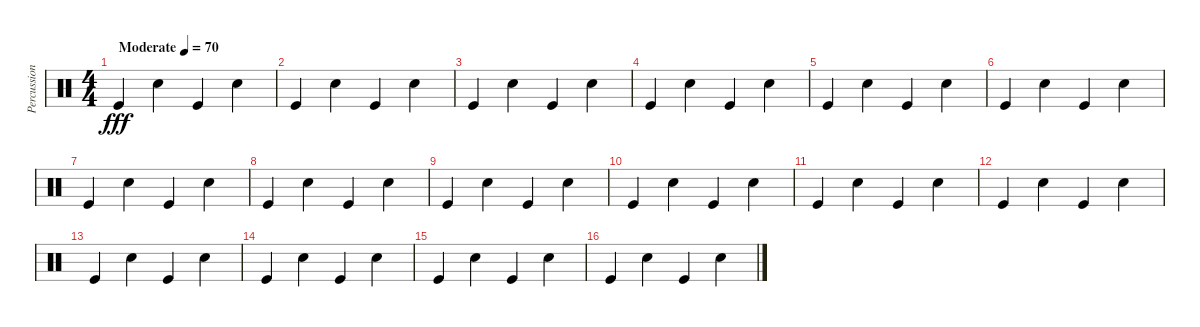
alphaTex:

\track ("Percussions" "Percussion") {instrument percussion}
\staff {score}
\articulation defaults
\ts (4 4)
\tempo (70 "Moderate")
\clef neutral
\ks c "Kick (hit)".4{dy fff} "Electric Snare (hit)".4 "Kick (hit)".4 "Electric Snare (hit)".4
|
"Kick (hit)".4 "Electric Snare (hit)".4 "Kick (hit)".4 "Electric Snare (hit)".4 |
"Kick (hit)".4 "Electric Snare (hit)".4 "Kick (hit)".4 "Electric Snare (hit)".4 |
"Kick (hit)".4 "Electric Snare (hit)".4 "Kick (hit)".4 "Electric Snare (hit)".4 |
"Kick (hit)".4 "Electric Snare (hit)".4 "Kick (hit)".4 "Electric Snare (hit)".4 |
"Kick (hit)".4 "Electric Snare (hit)".4 "Kick (hit)".4 "Electric Snare (hit)".4 |
"Kick (hit)".4 "Electric Snare (hit)".4 "Kick (hit)".4 "Electric Snare (hit)".4 |
"Kick (hit)".4 "Electric Snare (hit)".4 "Kick (hit)".4 "Electric Snare (hit)".4 |
"Kick (hit)".4 "Electric Snare (hit)".4 "Kick (hit)".4 "Electric Snare (hit)".4 |
"Kick (hit)".4 "Electric Snare (hit)".4 "Kick (hit)".4 "Electric Snare (hit)".4 |
"Kick (hit)".4 "Electric Snare (hit)".4 "Kick (hit)".4 "Electric Snare (hit)".4 |
"Kick (hit)".4 "Electric Snare (hit)".4 "Kick (hit)".4 "Electric Snare (hit)".4 |
"Kick (hit)".4 "Electric Snare (hit)".4 "Kick (hit)".4 "Electric Snare (hit)".4 |
"Kick (hit)".4 "Electric Snare (hit)".4 "Kick (hit)".4 "Electric Snare (hit)".4 |
"Kick (hit)".4 "Electric Snare (hit)".4 "Kick (hit)".4 "Electric Snare (hit)".4 |
"Kick (hit)".4 "Electric Snare (hit)".4 "Kick (hit)".4 "Electric Snare (hit)".4
